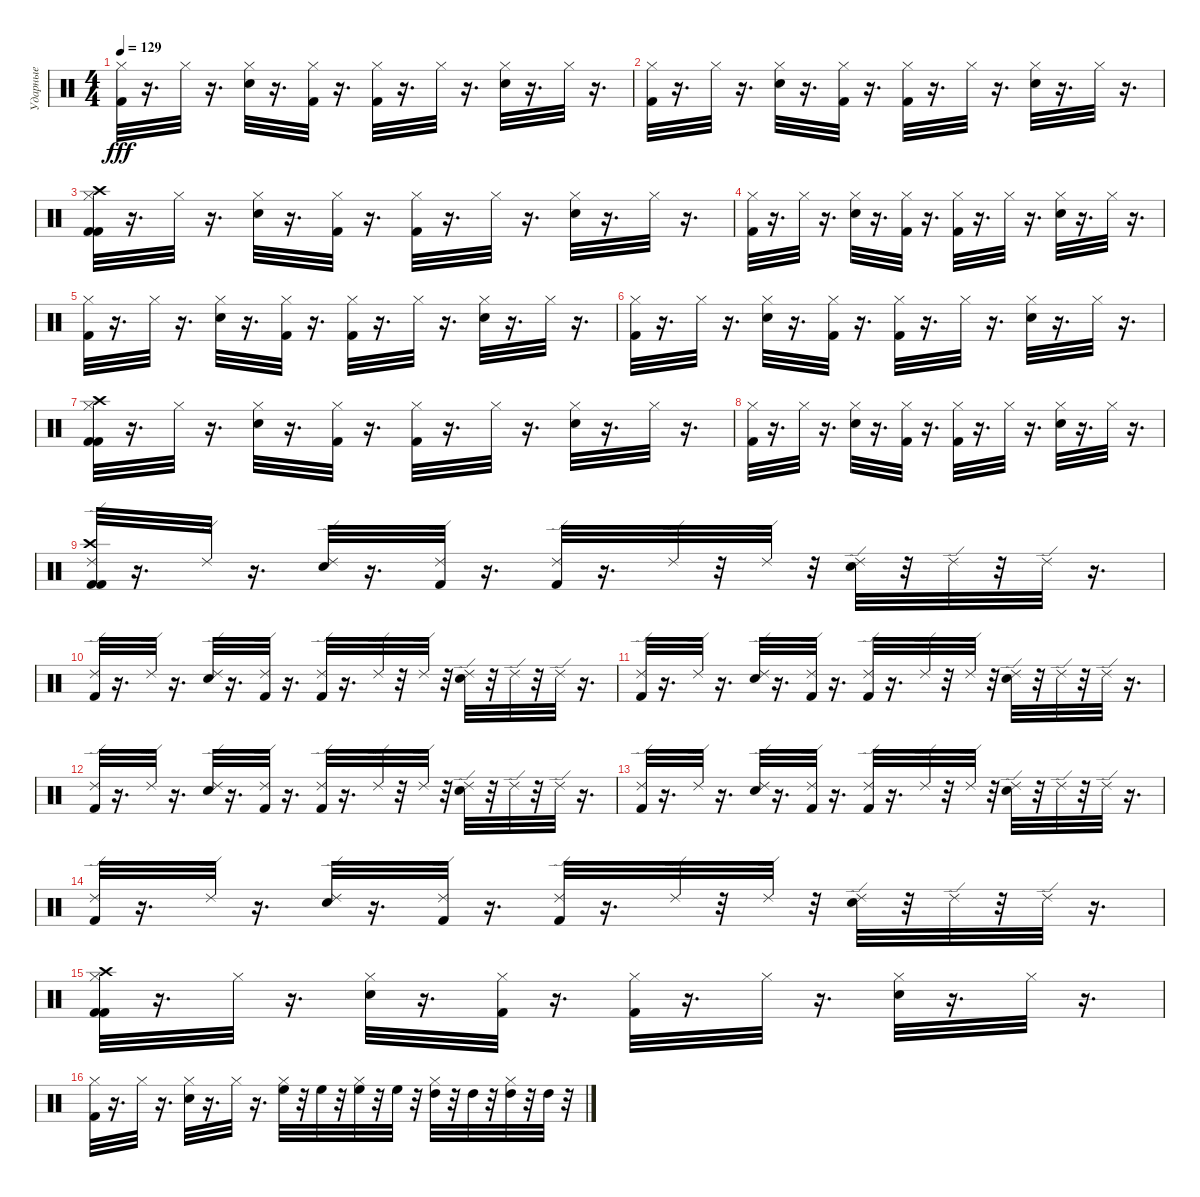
\track ("Ударные" "Ударные") {instrument percussion}
\staff {score}
\articulation defaults
\ts (4 4)
\tempo 129
\clef neutral
\ks c
("Kick (hit) 2" "Hi-Hat (closed)").32{dy fff balance 10} r.16{d} "Hi-Hat (closed)".32{balance 10} r.16{d} ("Electric Snare (hit)" "Hi-Hat (closed)").32{balance 10} r.16{d} ("Kick (hit) 2" "Hi-Hat (closed)").32{balance 10} r.16{d} ("Kick (hit) 2" "Hi-Hat (closed)").32{balance 10} r.16{d} "Hi-Hat (closed)".32{balance 10} r.16{d} ("Electric Snare (hit)" "Hi-Hat (closed)").32{balance 10} r.16{d} "Hi-Hat (closed)".32{balance 10} r.16{d} |
("Kick (hit) 2" "Hi-Hat (closed)").32{balance 10} r.16{d} "Hi-Hat (closed)".32{balance 10} r.16{d} ("Electric Snare (hit)" "Hi-Hat (closed)").32{balance 10} r.16{d} ("Kick (hit) 2" "Hi-Hat (closed)").32{balance 10} r.16{d} ("Kick (hit) 2" "Hi-Hat (closed)").32{balance 10} r.16{d} "Hi-Hat (closed)".32{balance 10} r.16{d} ("Electric Snare (hit)" "Hi-Hat (closed)").32{balance 10} r.16{d} "Hi-Hat (closed)".32{balance 10} r.16{d} |
("Kick (hit) 2" "Crash high (hit)" "Kick (hit) 2" "Hi-Hat (closed)").32{balance 10} r.16{d} "Hi-Hat (closed)".32{balance 10} r.16{d} ("Electric Snare (hit)" "Hi-Hat (closed)").32{balance 10} r.16{d} ("Kick (hit) 2" "Hi-Hat (closed)").32{balance 10} r.16{d} ("Kick (hit) 2" "Hi-Hat (closed)").32{balance 10} r.16{d} "Hi-Hat (closed)".32{balance 10} r.16{d} ("Electric Snare (hit)" "Hi-Hat (closed)").32{balance 10} r.16{d} "Hi-Hat (closed)".32{balance 10} r.16{d} |
("Kick (hit) 2" "Hi-Hat (closed)").32{balance 10} r.16{d} "Hi-Hat (closed)".32{balance 10} r.16{d} ("Electric Snare (hit)" "Hi-Hat (closed)").32{balance 10} r.16{d} ("Kick (hit) 2" "Hi-Hat (closed)").32{balance 10} r.16{d} ("Kick (hit) 2" "Hi-Hat (closed)").32{balance 10} r.16{d} "Hi-Hat (closed)".32{balance 10} r.16{d} ("Electric Snare (hit)" "Hi-Hat (closed)").32{balance 10} r.16{d} "Hi-Hat (closed)".32{balance 10} r.16{d} |
("Kick (hit) 2" "Hi-Hat (closed)").32{balance 10} r.16{d} "Hi-Hat (closed)".32{balance 10} r.16{d} ("Electric Snare (hit)" "Hi-Hat (closed)").32{balance 10} r.16{d} ("Kick (hit) 2" "Hi-Hat (closed)").32{balance 10} r.16{d} ("Kick (hit) 2" "Hi-Hat (closed)").32{balance 10} r.16{d} "Hi-Hat (closed)".32{balance 10} r.16{d} ("Electric Snare (hit)" "Hi-Hat (closed)").32{balance 10} r.16{d} "Hi-Hat (closed)".32{balance 10} r.16{d} |
("Kick (hit) 2" "Hi-Hat (closed)").32{balance 10} r.16{d} "Hi-Hat (closed)".32{balance 10} r.16{d} ("Electric Snare (hit)" "Hi-Hat (closed)").32{balance 10} r.16{d} ("Kick (hit) 2" "Hi-Hat (closed)").32{balance 10} r.16{d} ("Kick (hit) 2" "Hi-Hat (closed)").32{balance 10} r.16{d} "Hi-Hat (closed)".32{balance 10} r.16{d} ("Electric Snare (hit)" "Hi-Hat (closed)").32{balance 10} r.16{d} "Hi-Hat (closed)".32{balance 10} r.16{d} |
("Kick (hit) 2" "Crash high (hit)" "Kick (hit) 2" "Hi-Hat (closed)").32{balance 10} r.16{d} "Hi-Hat (closed)".32{balance 10} r.16{d} ("Electric Snare (hit)" "Hi-Hat (closed)").32{balance 10} r.16{d} ("Kick (hit) 2" "Hi-Hat (closed)").32{balance 10} r.16{d} ("Kick (hit) 2" "Hi-Hat (closed)").32{balance 10} r.16{d} "Hi-Hat (closed)".32{balance 10} r.16{d} ("Electric Snare (hit)" "Hi-Hat (closed)").32{balance 10} r.16{d} "Hi-Hat (closed)".32{balance 10} r.16{d} |
("Kick (hit) 2" "Hi-Hat (closed)").32{balance 10} r.16{d} "Hi-Hat (closed)".32{balance 10} r.16{d} ("Electric Snare (hit)" "Hi-Hat (closed)").32{balance 10} r.16{d} ("Kick (hit) 2" "Hi-Hat (closed)").32{balance 10} r.16{d} ("Kick (hit) 2" "Hi-Hat (closed)").32{balance 10} r.16{d} "Hi-Hat (closed)".32{balance 10} r.16{d} ("Electric Snare (hit)" "Hi-Hat (closed)").32{balance 10} r.16{d} "Hi-Hat (closed)".32{balance 10} r.16{d} |
("Kick (hit) 2" "Crash high (hit)" "Kick (hit) 2" "Ride (edge) 2").32{balance 8} r.16{d} "Ride (edge) 2".32{balance 8} r.16{d} ("Electric Snare (hit)" "Ride (edge) 2").32{balance 8} r.16{d} ("Kick (hit) 2" "Ride (edge) 2").32{balance 8} r.16{d} ("Kick (hit) 2" "Ride (edge) 2").32{balance 8} r.16{d} "Ride (edge) 2".32{balance 8} r.32 "Ride (edge) 2".32{balance 8} r.32 ("Electric Snare (hit)" "Ride (edge) 2").32{balance 8} r.32 "Ride (edge) 2".32{balance 8} r.32 "Ride (edge) 2".32{balance 8} r.16{d} |
("Kick (hit) 2" "Ride (edge) 2").32{balance 8} r.16{d} "Ride (edge) 2".32{balance 8} r.16{d} ("Electric Snare (hit)" "Ride (edge) 2").32{balance 8} r.16{d} ("Kick (hit) 2" "Ride (edge) 2").32{balance 8} r.16{d} ("Kick (hit) 2" "Ride (edge) 2").32{balance 8} r.16{d} "Ride (edge) 2".32{balance 8} r.32 "Ride (edge) 2".32{balance 8} r.32 ("Electric Snare (hit)" "Ride (edge) 2").32{balance 8} r.32 "Ride (edge) 2".32{balance 8} r.32 "Ride (edge) 2".32{balance 8} r.16{d} |
("Kick (hit) 2" "Ride (edge) 2").32{balance 8} r.16{d} "Ride (edge) 2".32{balance 8} r.16{d} ("Electric Snare (hit)" "Ride (edge) 2").32{balance 8} r.16{d} ("Kick (hit) 2" "Ride (edge) 2").32{balance 8} r.16{d} ("Kick (hit) 2" "Ride (edge) 2").32{balance 8} r.16{d} "Ride (edge) 2".32{balance 8} r.32 "Ride (edge) 2".32{balance 8} r.32 ("Electric Snare (hit)" "Ride (edge) 2").32{balance 8} r.32 "Ride (edge) 2".32{balance 8} r.32 "Ride (edge) 2".32{balance 8} r.16{d} |
("Kick (hit) 2" "Ride (edge) 2").32{balance 8} r.16{d} "Ride (edge) 2".32{balance 8} r.16{d} ("Electric Snare (hit)" "Ride (edge) 2").32{balance 8} r.16{d} ("Kick (hit) 2" "Ride (edge) 2").32{balance 8} r.16{d} ("Kick (hit) 2" "Ride (edge) 2").32{balance 8} r.16{d} "Ride (edge) 2".32{balance 8} r.32 "Ride (edge) 2".32{balance 8} r.32 ("Electric Snare (hit)" "Ride (edge) 2").32{balance 8} r.32 "Ride (edge) 2".32{balance 8} r.32 "Ride (edge) 2".32{balance 8} r.16{d} |
("Kick (hit) 2" "Ride (edge) 2").32{balance 8} r.16{d} "Ride (edge) 2".32{balance 8} r.16{d} ("Electric Snare (hit)" "Ride (edge) 2").32{balance 8} r.16{d} ("Kick (hit) 2" "Ride (edge) 2").32{balance 8} r.16{d} ("Kick (hit) 2" "Ride (edge) 2").32{balance 8} r.16{d} "Ride (edge) 2".32{balance 8} r.32 "Ride (edge) 2".32{balance 8} r.32 ("Electric Snare (hit)" "Ride (edge) 2").32{balance 8} r.32 "Ride (edge) 2".32{balance 8} r.32 "Ride (edge) 2".32{balance 8} r.16{d} |
("Kick (hit) 2" "Ride (edge) 2").32{balance 8} r.16{d} "Ride (edge) 2".32{balance 8} r.16{d} ("Electric Snare (hit)" "Ride (edge) 2").32{balance 8} r.16{d} ("Kick (hit) 2" "Ride (edge) 2").32{balance 8} r.16{d} ("Kick (hit) 2" "Ride (edge) 2").32{balance 8} r.16{d} "Ride (edge) 2".32{balance 8} r.32 "Ride (edge) 2".32{balance 8} r.32 ("Electric Snare (hit)" "Ride (edge) 2").32{balance 8} r.32 "Ride (edge) 2".32{balance 8} r.32 "Ride (edge) 2".32{balance 8} r.16{d} |
("Kick (hit) 2" "Crash high (hit)" "Kick (hit) 2" "Hi-Hat (closed)").32{balance 10} r.16{d} "Hi-Hat (closed)".32{balance 10} r.16{d} ("Electric Snare (hit)" "Hi-Hat (closed)").32{balance 10} r.16{d} ("Kick (hit) 2" "Hi-Hat (closed)").32{balance 10} r.16{d} ("Kick (hit) 2" "Hi-Hat (closed)").32{balance 10} r.16{d} "Hi-Hat (closed)".32{balance 10} r.16{d} ("Electric Snare (hit)" "Hi-Hat (closed)").32{balance 10} r.16{d} "Hi-Hat (closed)".32{balance 10} r.16{d} |
("Kick (hit) 2" "Hi-Hat (closed)").32{balance 10} r.16{d} "Hi-Hat (closed)".32{balance 10} r.16{d} ("Electric Snare (hit)" "Hi-Hat (closed)").32{balance 10} r.16{d} "Hi-Hat (closed)".32{balance 10} r.16{d} ("Hi-Hat (closed)" "High Floor Tom (hit)").32{balance 8} r.32 "High Floor Tom (hit)".32{balance 8} r.32 ("Hi-Hat (closed)" "High Floor Tom (hit)").32{balance 8} r.32 "High Floor Tom (hit)".32{balance 8} r.32 ("Hi-Hat (closed)" "High Tom (hit)").32{balance 11} r.32 "High Tom (hit)".32{balance 11} r.32 ("Hi-Hat (closed)" "High Tom (hit)").32{balance 11} r.32 "High Tom (hit)".32{balance 11} r.32
